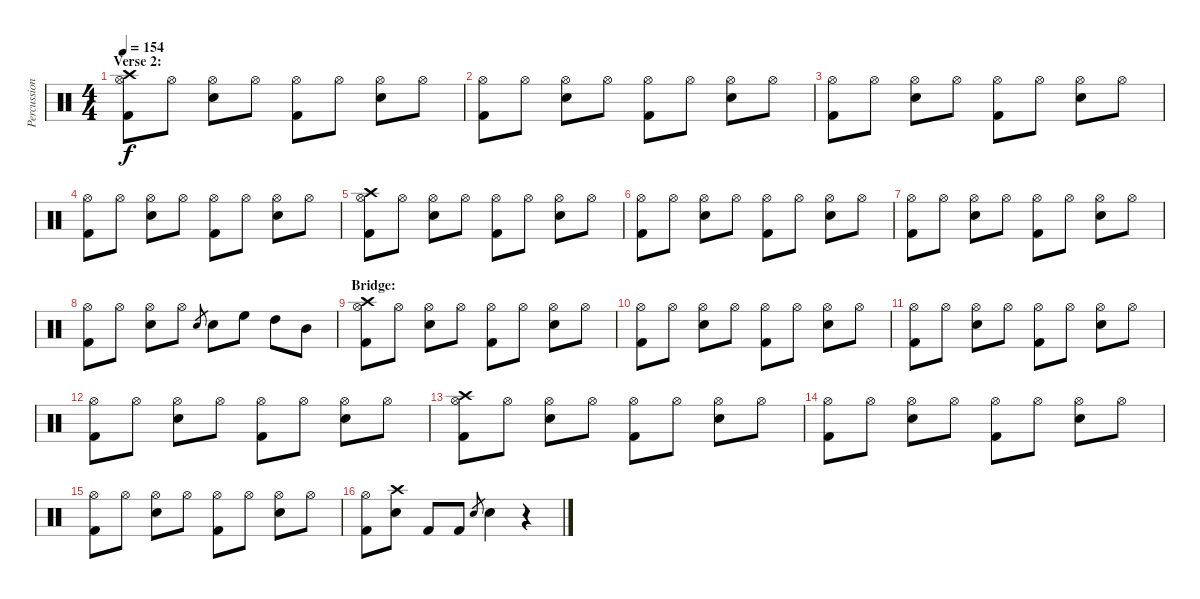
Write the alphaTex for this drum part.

\track ("Percussion" "Percussion") {instrument percussion}
\staff {score}
\articulation defaults
\ts (4 4)
\section ("" "Verse 2:")
\tempo 154
\clef neutral
\ks c
("Hi-Hat (open)" "Crash high (hit)" "Kick (hit) 2").8{dy f} "Hi-Hat (open)".8 ("Hi-Hat (open)" "Snare (hit) 2").8 "Hi-Hat (open)".8 ("Hi-Hat (open)" "Kick (hit) 2").8 "Hi-Hat (open)".8 ("Hi-Hat (open)" "Snare (hit) 2").8 "Hi-Hat (open)".8 |
("Hi-Hat (open)" "Kick (hit) 2").8 "Hi-Hat (open)".8 ("Hi-Hat (open)" "Snare (hit) 2").8 "Hi-Hat (open)".8 ("Hi-Hat (open)" "Kick (hit) 2").8 "Hi-Hat (open)".8 ("Hi-Hat (open)" "Snare (hit) 2").8 "Hi-Hat (open)".8 |
("Hi-Hat (open)" "Kick (hit) 2").8 "Hi-Hat (open)".8 ("Hi-Hat (open)" "Snare (hit) 2").8 "Hi-Hat (open)".8 ("Hi-Hat (open)" "Kick (hit) 2").8 "Hi-Hat (open)".8 ("Hi-Hat (open)" "Snare (hit) 2").8 "Hi-Hat (open)".8 |
("Hi-Hat (open)" "Kick (hit) 2").8 "Hi-Hat (open)".8 ("Hi-Hat (open)" "Snare (hit) 2").8 "Hi-Hat (open)".8 ("Hi-Hat (open)" "Kick (hit) 2").8 "Hi-Hat (open)".8 ("Hi-Hat (open)" "Snare (hit) 2").8 "Hi-Hat (open)".8 |
("Hi-Hat (open)" "Crash high (hit)" "Kick (hit) 2").8 "Hi-Hat (open)".8 ("Hi-Hat (open)" "Snare (hit) 2").8 "Hi-Hat (open)".8 ("Hi-Hat (open)" "Kick (hit) 2").8 "Hi-Hat (open)".8 ("Hi-Hat (open)" "Snare (hit) 2").8 "Hi-Hat (open)".8 |
("Hi-Hat (open)" "Kick (hit) 2").8 "Hi-Hat (open)".8 ("Hi-Hat (open)" "Snare (hit) 2").8 "Hi-Hat (open)".8 ("Hi-Hat (open)" "Kick (hit) 2").8 "Hi-Hat (open)".8 ("Hi-Hat (open)" "Snare (hit) 2").8 "Hi-Hat (open)".8 |
("Hi-Hat (open)" "Kick (hit) 2").8 "Hi-Hat (open)".8 ("Hi-Hat (open)" "Snare (hit) 2").8 "Hi-Hat (open)".8 ("Hi-Hat (open)" "Kick (hit) 2").8 "Hi-Hat (open)".8 ("Hi-Hat (open)" "Snare (hit) 2").8 "Hi-Hat (open)".8 |
("Hi-Hat (open)" "Kick (hit) 2").8 "Hi-Hat (open)".8 ("Hi-Hat (open)" "Snare (hit) 2").8 "Hi-Hat (open)".8 "Snare (hit) 2".8{gr} "Snare (hit) 2".8 "High Floor Tom (hit)".8 "High Tom (hit)".8 "Mid Tom (hit)".8 |
\section ("" "Bridge:")
("Hi-Hat (open)" "Crash high (hit)" "Kick (hit) 2").8 "Hi-Hat (open)".8 ("Hi-Hat (open)" "Snare (hit) 2").8 "Hi-Hat (open)".8 ("Hi-Hat (open)" "Kick (hit) 2").8 "Hi-Hat (open)".8 ("Hi-Hat (open)" "Snare (hit) 2").8 "Hi-Hat (open)".8 |
("Hi-Hat (open)" "Kick (hit) 2").8 "Hi-Hat (open)".8 ("Hi-Hat (open)" "Snare (hit) 2").8 "Hi-Hat (open)".8 ("Hi-Hat (open)" "Kick (hit) 2").8 "Hi-Hat (open)".8 ("Hi-Hat (open)" "Snare (hit) 2").8 "Hi-Hat (open)".8 |
("Hi-Hat (open)" "Kick (hit) 2").8 "Hi-Hat (open)".8 ("Hi-Hat (open)" "Snare (hit) 2").8 "Hi-Hat (open)".8 ("Hi-Hat (open)" "Kick (hit) 2").8 "Hi-Hat (open)".8 ("Hi-Hat (open)" "Snare (hit) 2").8 "Hi-Hat (open)".8 |
("Hi-Hat (open)" "Kick (hit) 2").8 "Hi-Hat (open)".8 ("Hi-Hat (open)" "Snare (hit) 2").8 "Hi-Hat (open)".8 ("Hi-Hat (open)" "Kick (hit) 2").8 "Hi-Hat (open)".8 ("Hi-Hat (open)" "Snare (hit) 2").8 "Hi-Hat (open)".8 |
("Hi-Hat (open)" "Crash high (hit)" "Kick (hit) 2").8 "Hi-Hat (open)".8 ("Hi-Hat (open)" "Snare (hit) 2").8 "Hi-Hat (open)".8 ("Hi-Hat (open)" "Kick (hit) 2").8 "Hi-Hat (open)".8 ("Hi-Hat (open)" "Snare (hit) 2").8 "Hi-Hat (open)".8 |
("Hi-Hat (open)" "Kick (hit) 2").8 "Hi-Hat (open)".8 ("Hi-Hat (open)" "Snare (hit) 2").8 "Hi-Hat (open)".8 ("Hi-Hat (open)" "Kick (hit) 2").8 "Hi-Hat (open)".8 ("Hi-Hat (open)" "Snare (hit) 2").8 "Hi-Hat (open)".8 |
("Hi-Hat (open)" "Kick (hit) 2").8 "Hi-Hat (open)".8 ("Hi-Hat (open)" "Snare (hit) 2").8 "Hi-Hat (open)".8 ("Hi-Hat (open)" "Kick (hit) 2").8 "Hi-Hat (open)".8 ("Hi-Hat (open)" "Snare (hit) 2").8 "Hi-Hat (open)".8 |
("Hi-Hat (open)" "Kick (hit) 2").8 ("Crash high (hit)" "Snare (hit) 2").8 "Kick (hit) 2".8 "Kick (hit) 2".8 "Snare (hit) 2".8{gr} "Snare (hit) 2".4 r.4
